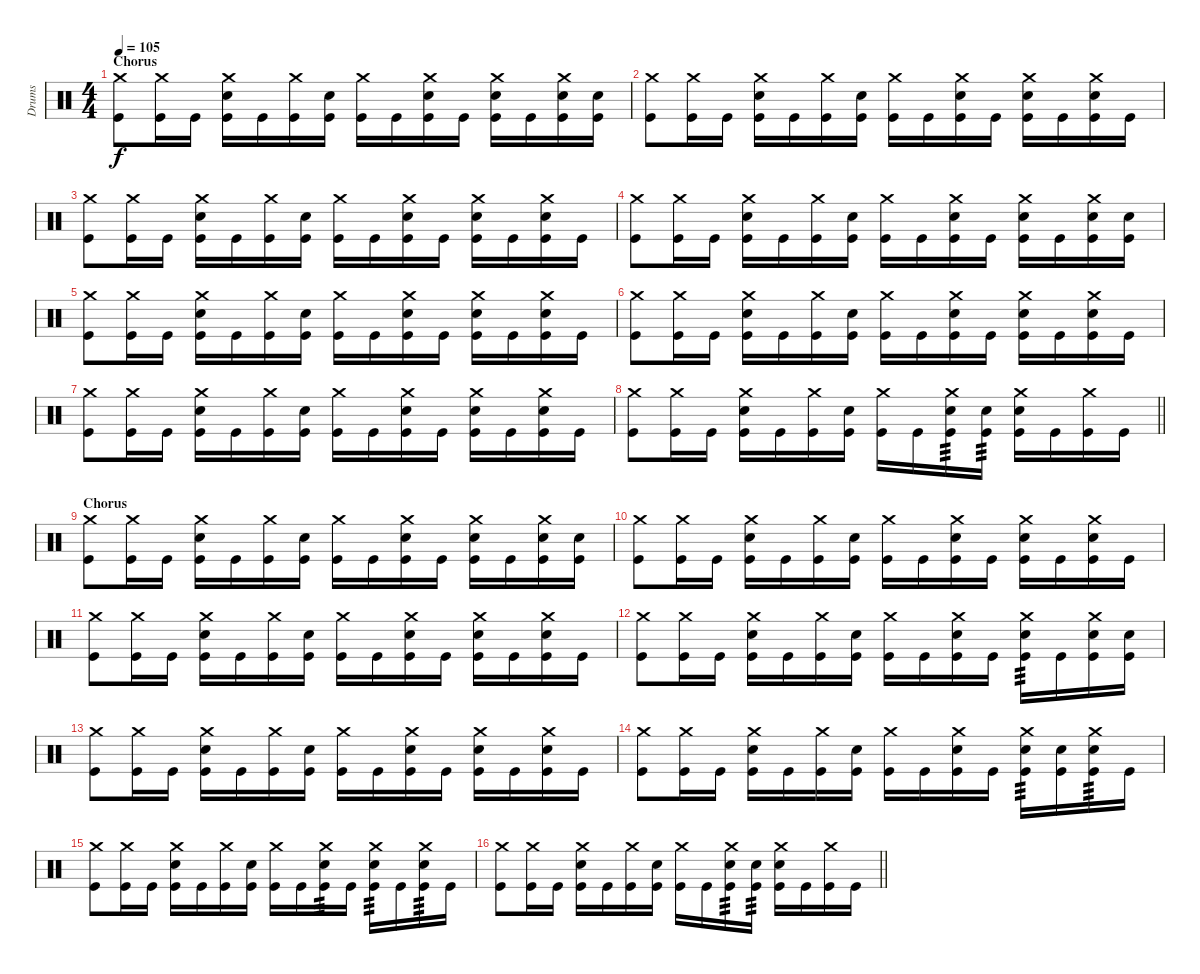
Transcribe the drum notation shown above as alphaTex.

\track ("Drums" "Drums") {instrument percussion}
\staff {score}
\articulation defaults
\ts (4 4)
\section ("" "Chorus")
\tempo 105
\clef neutral
\ks c
("Crash medium (hit)" "Kick (hit)").8{dy f} ("Crash medium (hit)" "Kick (hit)").16 "Kick (hit)".16 ("Crash medium (hit)" "Snare (hit) 2" "Kick (hit)").16 "Kick (hit)".16 ("Crash medium (hit)" "Kick (hit)").16 ("Snare (hit) 2" "Kick (hit)").16 ("Crash medium (hit)" "Kick (hit)").16 "Kick (hit)".16 ("Crash medium (hit)" "Snare (hit) 2" "Kick (hit)").16 "Kick (hit)".16 ("Crash medium (hit)" "Snare (hit) 2" "Kick (hit)").16 "Kick (hit)".16 ("Crash medium (hit)" "Snare (hit) 2" "Kick (hit)").16 ("Snare (hit) 2" "Kick (hit)").16 |
("Crash medium (hit)" "Kick (hit)").8 ("Crash medium (hit)" "Kick (hit)").16 "Kick (hit)".16 ("Crash medium (hit)" "Snare (hit) 2" "Kick (hit)").16 "Kick (hit)".16 ("Crash medium (hit)" "Kick (hit)").16 ("Snare (hit) 2" "Kick (hit)").16 ("Crash medium (hit)" "Kick (hit)").16 "Kick (hit)".16 ("Crash medium (hit)" "Snare (hit) 2" "Kick (hit)").16 "Kick (hit)".16 ("Crash medium (hit)" "Snare (hit) 2" "Kick (hit)").16 "Kick (hit)".16 ("Crash medium (hit)" "Snare (hit) 2" "Kick (hit)").16 "Kick (hit)".16 |
("Crash medium (hit)" "Kick (hit)").8 ("Crash medium (hit)" "Kick (hit)").16 "Kick (hit)".16 ("Crash medium (hit)" "Snare (hit) 2" "Kick (hit)").16 "Kick (hit)".16 ("Crash medium (hit)" "Kick (hit)").16 ("Snare (hit) 2" "Kick (hit)").16 ("Crash medium (hit)" "Kick (hit)").16 "Kick (hit)".16 ("Crash medium (hit)" "Snare (hit) 2" "Kick (hit)").16 "Kick (hit)".16 ("Crash medium (hit)" "Snare (hit) 2" "Kick (hit)").16 "Kick (hit)".16 ("Crash medium (hit)" "Snare (hit) 2" "Kick (hit)").16 "Kick (hit)".16 |
("Crash medium (hit)" "Kick (hit)").8 ("Crash medium (hit)" "Kick (hit)").16 "Kick (hit)".16 ("Crash medium (hit)" "Snare (hit) 2" "Kick (hit)").16 "Kick (hit)".16 ("Crash medium (hit)" "Kick (hit)").16 ("Snare (hit) 2" "Kick (hit)").16 ("Crash medium (hit)" "Kick (hit)").16 "Kick (hit)".16 ("Crash medium (hit)" "Snare (hit) 2" "Kick (hit)").16 "Kick (hit)".16 ("Crash medium (hit)" "Snare (hit) 2" "Kick (hit)").16 "Kick (hit)".16 ("Crash medium (hit)" "Snare (hit) 2" "Kick (hit)").16 ("Snare (hit) 2" "Kick (hit)").16 |
("Crash medium (hit)" "Kick (hit)").8 ("Crash medium (hit)" "Kick (hit)").16 "Kick (hit)".16 ("Crash medium (hit)" "Snare (hit) 2" "Kick (hit)").16 "Kick (hit)".16 ("Crash medium (hit)" "Kick (hit)").16 ("Snare (hit) 2" "Kick (hit)").16 ("Crash medium (hit)" "Kick (hit)").16 "Kick (hit)".16 ("Crash medium (hit)" "Snare (hit) 2" "Kick (hit)").16 "Kick (hit)".16 ("Crash medium (hit)" "Snare (hit) 2" "Kick (hit)").16 "Kick (hit)".16 ("Crash medium (hit)" "Snare (hit) 2" "Kick (hit)").16 "Kick (hit)".16 |
("Crash medium (hit)" "Kick (hit)").8 ("Crash medium (hit)" "Kick (hit)").16 "Kick (hit)".16 ("Crash medium (hit)" "Snare (hit) 2" "Kick (hit)").16 "Kick (hit)".16 ("Crash medium (hit)" "Kick (hit)").16 ("Snare (hit) 2" "Kick (hit)").16 ("Crash medium (hit)" "Kick (hit)").16 "Kick (hit)".16 ("Crash medium (hit)" "Snare (hit) 2" "Kick (hit)").16 "Kick (hit)".16 ("Crash medium (hit)" "Snare (hit) 2" "Kick (hit)").16 "Kick (hit)".16 ("Crash medium (hit)" "Snare (hit) 2" "Kick (hit)").16 "Kick (hit)".16 |
("Crash medium (hit)" "Kick (hit)").8 ("Crash medium (hit)" "Kick (hit)").16 "Kick (hit)".16 ("Crash medium (hit)" "Snare (hit) 2" "Kick (hit)").16 "Kick (hit)".16 ("Crash medium (hit)" "Kick (hit)").16 ("Snare (hit) 2" "Kick (hit)").16 ("Crash medium (hit)" "Kick (hit)").16 "Kick (hit)".16 ("Crash medium (hit)" "Snare (hit) 2" "Kick (hit)").16 "Kick (hit)".16 ("Crash medium (hit)" "Snare (hit) 2" "Kick (hit)").16 "Kick (hit)".16 ("Crash medium (hit)" "Snare (hit) 2" "Kick (hit)").16 "Kick (hit)".16 |
\barLineRight lightlight
("Crash medium (hit)" "Kick (hit)").8 ("Crash medium (hit)" "Kick (hit)").16 "Kick (hit)".16 ("Crash medium (hit)" "Snare (hit) 2" "Kick (hit)").16 "Kick (hit)".16 ("Crash medium (hit)" "Kick (hit)").16 ("Snare (hit) 2" "Kick (hit)").16 ("Crash medium (hit)" "Kick (hit)").16 "Kick (hit)".16 ("Crash medium (hit)" "Snare (hit) 2" "Kick (hit)").16{tp 3} ("Snare (hit) 2" "Kick (hit)").16{tp 3} ("Crash medium (hit)" "Snare (hit) 2" "Kick (hit)").16 "Kick (hit)".16 ("Crash medium (hit)" "Kick (hit)").16 "Kick (hit)".16 |
\section ("" "Chorus")
("Crash medium (hit)" "Kick (hit)").8 ("Crash medium (hit)" "Kick (hit)").16 "Kick (hit)".16 ("Crash medium (hit)" "Snare (hit) 2" "Kick (hit)").16 "Kick (hit)".16 ("Crash medium (hit)" "Kick (hit)").16 ("Snare (hit) 2" "Kick (hit)").16 ("Crash medium (hit)" "Kick (hit)").16 "Kick (hit)".16 ("Crash medium (hit)" "Snare (hit) 2" "Kick (hit)").16 "Kick (hit)".16 ("Crash medium (hit)" "Snare (hit) 2" "Kick (hit)").16 "Kick (hit)".16 ("Crash medium (hit)" "Snare (hit) 2" "Kick (hit)").16 ("Snare (hit) 2" "Kick (hit)").16 |
("Crash medium (hit)" "Kick (hit)").8 ("Crash medium (hit)" "Kick (hit)").16 "Kick (hit)".16 ("Crash medium (hit)" "Snare (hit) 2" "Kick (hit)").16 "Kick (hit)".16 ("Crash medium (hit)" "Kick (hit)").16 ("Snare (hit) 2" "Kick (hit)").16 ("Crash medium (hit)" "Kick (hit)").16 "Kick (hit)".16 ("Crash medium (hit)" "Snare (hit) 2" "Kick (hit)").16 "Kick (hit)".16 ("Crash medium (hit)" "Snare (hit) 2" "Kick (hit)").16 "Kick (hit)".16 ("Crash medium (hit)" "Snare (hit) 2" "Kick (hit)").16 "Kick (hit)".16 |
("Crash medium (hit)" "Kick (hit)").8 ("Crash medium (hit)" "Kick (hit)").16 "Kick (hit)".16 ("Crash medium (hit)" "Snare (hit) 2" "Kick (hit)").16 "Kick (hit)".16 ("Crash medium (hit)" "Kick (hit)").16 ("Snare (hit) 2" "Kick (hit)").16 ("Crash medium (hit)" "Kick (hit)").16 "Kick (hit)".16 ("Crash medium (hit)" "Snare (hit) 2" "Kick (hit)").16 "Kick (hit)".16 ("Crash medium (hit)" "Snare (hit) 2" "Kick (hit)").16 "Kick (hit)".16 ("Crash medium (hit)" "Snare (hit) 2" "Kick (hit)").16 "Kick (hit)".16 |
("Crash medium (hit)" "Kick (hit)").8 ("Crash medium (hit)" "Kick (hit)").16 "Kick (hit)".16 ("Crash medium (hit)" "Snare (hit) 2" "Kick (hit)").16 "Kick (hit)".16 ("Crash medium (hit)" "Kick (hit)").16 ("Snare (hit) 2" "Kick (hit)").16 ("Crash medium (hit)" "Kick (hit)").16 "Kick (hit)".16 ("Crash medium (hit)" "Snare (hit) 2" "Kick (hit)").16 "Kick (hit)".16 ("Crash medium (hit)" "Snare (hit) 2" "Kick (hit)").16{tp 3} "Kick (hit)".16 ("Crash medium (hit)" "Snare (hit) 2" "Kick (hit)").16 ("Snare (hit) 2" "Kick (hit)").16 |
("Crash medium (hit)" "Kick (hit)").8 ("Crash medium (hit)" "Kick (hit)").16 "Kick (hit)".16 ("Crash medium (hit)" "Snare (hit) 2" "Kick (hit)").16 "Kick (hit)".16 ("Crash medium (hit)" "Kick (hit)").16 ("Snare (hit) 2" "Kick (hit)").16 ("Crash medium (hit)" "Kick (hit)").16 "Kick (hit)".16 ("Crash medium (hit)" "Snare (hit) 2" "Kick (hit)").16 "Kick (hit)".16 ("Crash medium (hit)" "Snare (hit) 2" "Kick (hit)").16 "Kick (hit)".16 ("Crash medium (hit)" "Snare (hit) 2" "Kick (hit)").16 "Kick (hit)".16 |
("Crash medium (hit)" "Kick (hit)").8 ("Crash medium (hit)" "Kick (hit)").16 "Kick (hit)".16 ("Crash medium (hit)" "Snare (hit) 2" "Kick (hit)").16 "Kick (hit)".16 ("Crash medium (hit)" "Kick (hit)").16 ("Snare (hit) 2" "Kick (hit)").16 ("Crash medium (hit)" "Kick (hit)").16 "Kick (hit)".16 ("Crash medium (hit)" "Snare (hit) 2" "Kick (hit)").16 "Kick (hit)".16 ("Crash medium (hit)" "Snare (hit) 2" "Kick (hit)").16{tp 3} ("Snare (hit) 2" "Kick (hit)").16 ("Crash medium (hit)" "Snare (hit) 2" "Kick (hit)").16{tp 3} "Kick (hit)".16 |
("Crash medium (hit)" "Kick (hit)").8 ("Crash medium (hit)" "Kick (hit)").16 "Kick (hit)".16 ("Crash medium (hit)" "Snare (hit) 2" "Kick (hit)").16 "Kick (hit)".16 ("Crash medium (hit)" "Kick (hit)").16 ("Snare (hit) 2" "Kick (hit)").16 ("Crash medium (hit)" "Kick (hit)").16 "Kick (hit)".16 ("Crash medium (hit)" "Snare (hit) 2" "Kick (hit)").16{tp 3} "Kick (hit)".16 ("Crash medium (hit)" "Snare (hit) 2" "Kick (hit)").16{tp 3} "Kick (hit)".16 ("Crash medium (hit)" "Snare (hit) 2" "Kick (hit)").16{tp 3} "Kick (hit)".16 |
\barLineRight lightlight
("Crash medium (hit)" "Kick (hit)").8 ("Crash medium (hit)" "Kick (hit)").16 "Kick (hit)".16 ("Crash medium (hit)" "Snare (hit) 2" "Kick (hit)").16 "Kick (hit)".16 ("Crash medium (hit)" "Kick (hit)").16 ("Snare (hit) 2" "Kick (hit)").16 ("Crash medium (hit)" "Kick (hit)").16 "Kick (hit)".16 ("Crash medium (hit)" "Snare (hit) 2" "Kick (hit)").16{tp 3} ("Snare (hit) 2" "Kick (hit)").16{tp 3} ("Crash medium (hit)" "Snare (hit) 2" "Kick (hit)").16 "Kick (hit)".16 ("Crash medium (hit)" "Kick (hit)").16 "Kick (hit)".16
